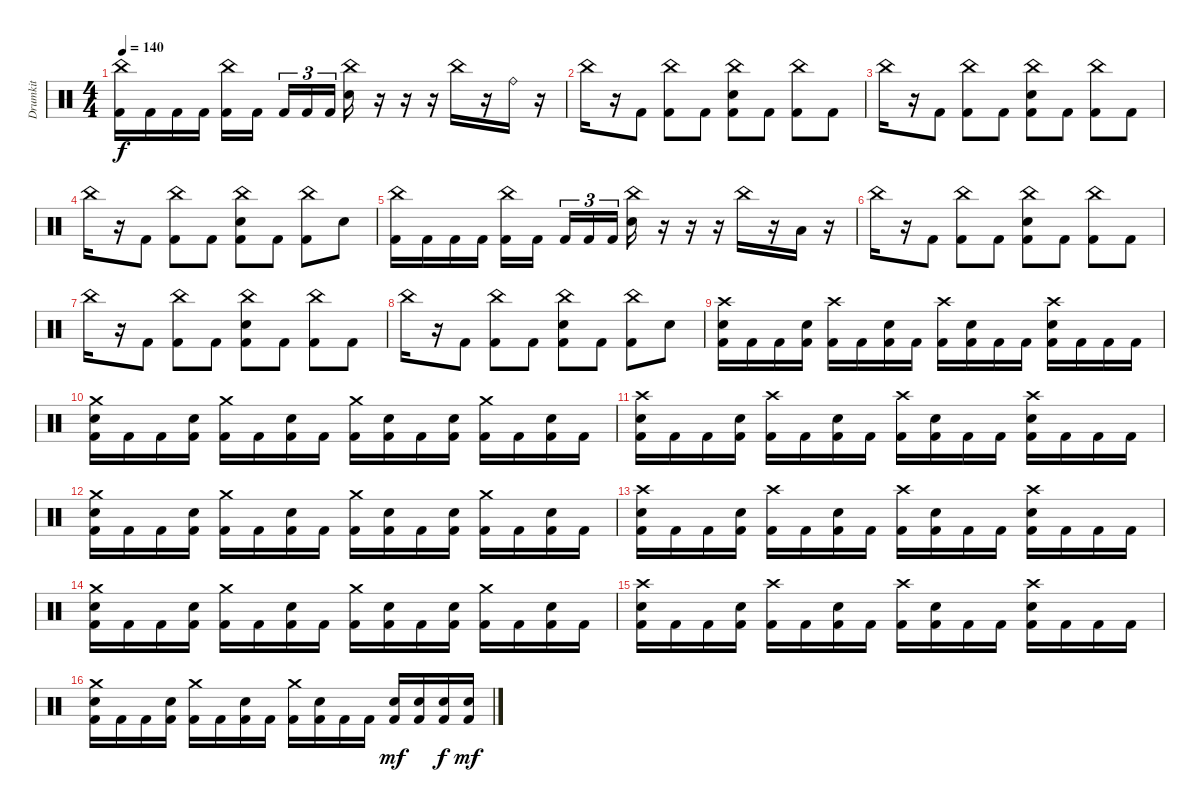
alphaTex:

\track ("Drumkit" "Drumkit") {instrument percussion}
\staff {score}
\articulation defaults
\ts (4 4)
\tempo 140
\clef neutral
\ks c
("China (hit)" "Kick (hit) 2").16{dy f} "Kick (hit) 2".16 "Kick (hit) 2".16 "Kick (hit) 2".16 ("China (hit)" "Kick (hit) 2").16 "Kick (hit) 2".16{beam splitsecondary} "Kick (hit) 2".16{tu (3 2)} "Kick (hit) 2".16{tu (3 2)} "Kick (hit) 2".16{tu (3 2)} ("China (hit)" "Electric Snare (hit)").16 r.16 r.16 r.16 "China (hit)".16 r.16 "Ride (bell)".16 r.16 |
"China (hit)".16 r.16 "Kick (hit) 2".8 ("China (hit)" "Kick (hit) 2").8 "Kick (hit) 2".8 ("China (hit)" "Electric Snare (hit)" "Kick (hit) 2").8 "Kick (hit) 2".8 ("China (hit)" "Kick (hit) 2").8 "Kick (hit) 2".8 |
"China (hit)".16 r.16 "Kick (hit) 2".8 ("China (hit)" "Kick (hit) 2").8 "Kick (hit) 2".8 ("China (hit)" "Electric Snare (hit)" "Kick (hit) 2").8 "Kick (hit) 2".8 ("China (hit)" "Kick (hit) 2").8 "Kick (hit) 2".8 |
"China (hit)".16 r.16 "Kick (hit) 2".8 ("China (hit)" "Kick (hit) 2").8 "Kick (hit) 2".8 ("China (hit)" "Electric Snare (hit)" "Kick (hit) 2").8 "Kick (hit) 2".8 ("China (hit)" "Kick (hit) 2").8 "Electric Snare (hit)".8 |
("China (hit)" "Kick (hit) 2").16 "Kick (hit) 2".16 "Kick (hit) 2".16 "Kick (hit) 2".16 ("China (hit)" "Kick (hit) 2").16 "Kick (hit) 2".16{beam splitsecondary} "Kick (hit) 2".16{tu (3 2)} "Kick (hit) 2".16{tu (3 2)} "Kick (hit) 2".16{tu (3 2)} ("China (hit)" "Electric Snare (hit)").16 r.16 r.16 r.16 "China (hit)".16 r.16 "Low Floor Tom (hit)".16 r.16 |
"China (hit)".16 r.16 "Kick (hit) 2".8 ("China (hit)" "Kick (hit) 2").8 "Kick (hit) 2".8 ("China (hit)" "Electric Snare (hit)" "Kick (hit) 2").8 "Kick (hit) 2".8 ("China (hit)" "Kick (hit) 2").8 "Kick (hit) 2".8 |
"China (hit)".16 r.16 "Kick (hit) 2".8 ("China (hit)" "Kick (hit) 2").8 "Kick (hit) 2".8 ("China (hit)" "Electric Snare (hit)" "Kick (hit) 2").8 "Kick (hit) 2".8 ("China (hit)" "Kick (hit) 2").8 "Kick (hit) 2".8 |
"China (hit)".16 r.16 "Kick (hit) 2".8 ("China (hit)" "Kick (hit) 2").8 "Kick (hit) 2".8 ("China (hit)" "Electric Snare (hit)" "Kick (hit) 2").8 "Kick (hit) 2".8 ("China (hit)" "Kick (hit) 2").8 "Electric Snare (hit)".8 |
("Crash high (hit)" "Electric Snare (hit)" "Kick (hit) 2").16 "Kick (hit) 2".16 "Kick (hit) 2".16 ("Electric Snare (hit)" "Kick (hit) 2").16 ("Crash high (hit)" "Kick (hit) 2").16 "Kick (hit) 2".16 ("Electric Snare (hit)" "Kick (hit) 2").16 "Kick (hit) 2".16 ("Crash high (hit)" "Kick (hit) 2").16 ("Electric Snare (hit)" "Kick (hit) 2").16 "Kick (hit) 2".16 "Kick (hit) 2".16 ("Crash high (hit)" "Electric Snare (hit)" "Kick (hit) 2").16 "Kick (hit) 2".16 "Kick (hit) 2".16 "Kick (hit) 2".16 |
("Crash medium (hit)" "Electric Snare (hit)" "Kick (hit) 2").16 "Kick (hit) 2".16 "Kick (hit) 2".16 ("Electric Snare (hit)" "Kick (hit) 2").16 ("Crash medium (hit)" "Kick (hit) 2").16 "Kick (hit) 2".16 ("Electric Snare (hit)" "Kick (hit) 2").16 "Kick (hit) 2".16 ("Crash medium (hit)" "Kick (hit) 2").16 ("Electric Snare (hit)" "Kick (hit) 2").16 "Kick (hit) 2".16 ("Electric Snare (hit)" "Kick (hit) 2").16 ("Crash medium (hit)" "Kick (hit) 2").16 "Kick (hit) 2".16 ("Electric Snare (hit)" "Kick (hit) 2").16 "Kick (hit) 2".16 |
("Crash high (hit)" "Electric Snare (hit)" "Kick (hit) 2").16 "Kick (hit) 2".16 "Kick (hit) 2".16 ("Electric Snare (hit)" "Kick (hit) 2").16 ("Crash high (hit)" "Kick (hit) 2").16 "Kick (hit) 2".16 ("Electric Snare (hit)" "Kick (hit) 2").16 "Kick (hit) 2".16 ("Crash high (hit)" "Kick (hit) 2").16 ("Electric Snare (hit)" "Kick (hit) 2").16 "Kick (hit) 2".16 "Kick (hit) 2".16 ("Crash high (hit)" "Electric Snare (hit)" "Kick (hit) 2").16 "Kick (hit) 2".16 "Kick (hit) 2".16 "Kick (hit) 2".16 |
("Crash medium (hit)" "Electric Snare (hit)" "Kick (hit) 2").16 "Kick (hit) 2".16 "Kick (hit) 2".16 ("Electric Snare (hit)" "Kick (hit) 2").16 ("Crash medium (hit)" "Kick (hit) 2").16 "Kick (hit) 2".16 ("Electric Snare (hit)" "Kick (hit) 2").16 "Kick (hit) 2".16 ("Crash medium (hit)" "Kick (hit) 2").16 ("Electric Snare (hit)" "Kick (hit) 2").16 "Kick (hit) 2".16 ("Electric Snare (hit)" "Kick (hit) 2").16 ("Crash medium (hit)" "Kick (hit) 2").16 "Kick (hit) 2".16 ("Electric Snare (hit)" "Kick (hit) 2").16 "Kick (hit) 2".16 |
("Crash high (hit)" "Electric Snare (hit)" "Kick (hit) 2").16 "Kick (hit) 2".16 "Kick (hit) 2".16 ("Electric Snare (hit)" "Kick (hit) 2").16 ("Crash high (hit)" "Kick (hit) 2").16 "Kick (hit) 2".16 ("Electric Snare (hit)" "Kick (hit) 2").16 "Kick (hit) 2".16 ("Crash high (hit)" "Kick (hit) 2").16 ("Electric Snare (hit)" "Kick (hit) 2").16 "Kick (hit) 2".16 "Kick (hit) 2".16 ("Crash high (hit)" "Electric Snare (hit)" "Kick (hit) 2").16 "Kick (hit) 2".16 "Kick (hit) 2".16 "Kick (hit) 2".16 |
("Crash medium (hit)" "Electric Snare (hit)" "Kick (hit) 2").16 "Kick (hit) 2".16 "Kick (hit) 2".16 ("Electric Snare (hit)" "Kick (hit) 2").16 ("Crash medium (hit)" "Kick (hit) 2").16 "Kick (hit) 2".16 ("Electric Snare (hit)" "Kick (hit) 2").16 "Kick (hit) 2".16 ("Crash medium (hit)" "Kick (hit) 2").16 ("Electric Snare (hit)" "Kick (hit) 2").16 "Kick (hit) 2".16 ("Electric Snare (hit)" "Kick (hit) 2").16 ("Crash medium (hit)" "Kick (hit) 2").16 "Kick (hit) 2".16 ("Electric Snare (hit)" "Kick (hit) 2").16 "Kick (hit) 2".16 |
("Crash high (hit)" "Electric Snare (hit)" "Kick (hit) 2").16 "Kick (hit) 2".16 "Kick (hit) 2".16 ("Electric Snare (hit)" "Kick (hit) 2").16 ("Crash high (hit)" "Kick (hit) 2").16 "Kick (hit) 2".16 ("Electric Snare (hit)" "Kick (hit) 2").16 "Kick (hit) 2".16 ("Crash high (hit)" "Kick (hit) 2").16 ("Electric Snare (hit)" "Kick (hit) 2").16 "Kick (hit) 2".16 "Kick (hit) 2".16 ("Crash high (hit)" "Electric Snare (hit)" "Kick (hit) 2").16 "Kick (hit) 2".16 "Kick (hit) 2".16 "Kick (hit) 2".16 |
("Crash medium (hit)" "Electric Snare (hit)" "Kick (hit) 2").16 "Kick (hit) 2".16 "Kick (hit) 2".16 ("Electric Snare (hit)" "Kick (hit) 2").16 ("Crash medium (hit)" "Kick (hit) 2").16 "Kick (hit) 2".16 ("Electric Snare (hit)" "Kick (hit) 2").16 "Kick (hit) 2".16 ("Crash medium (hit)" "Kick (hit) 2").16 ("Electric Snare (hit)" "Kick (hit) 2").16 "Kick (hit) 2".16 "Kick (hit) 2".16 ("Electric Snare (hit)" "Kick (hit) 2").16{dy mf} ("Electric Snare (hit)" "Kick (hit) 2").16 ("Electric Snare (hit)" "Kick (hit) 2").16{dy f} ("Electric Snare (hit)" "Kick (hit) 2").16{dy mf}
